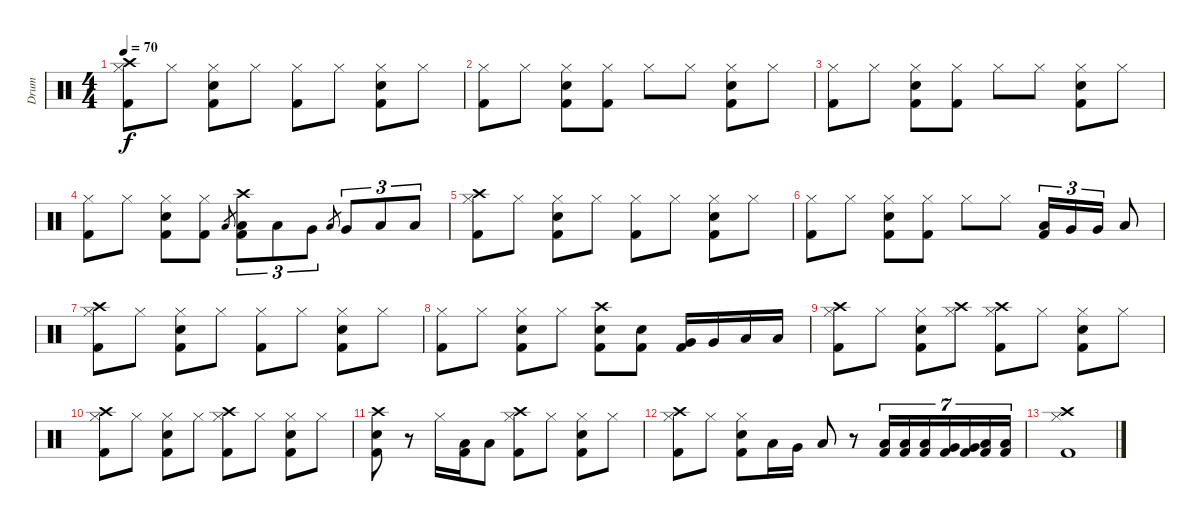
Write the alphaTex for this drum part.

\track ("Drum" "Drum") {instrument percussion}
\staff {score}
\articulation defaults
\ts (4 4)
\tempo 70
\clef neutral
\ks c
("Crash high (hit)" "Hi-Hat (closed)" "Kick (hit) 2").8{dy f} "Hi-Hat (closed)".8 ("Hi-Hat (closed)" "Electric Snare (hit)" "Kick (hit) 2").8 "Hi-Hat (closed)".8 ("Hi-Hat (closed)" "Kick (hit) 2").8 "Hi-Hat (closed)".8 ("Hi-Hat (closed)" "Electric Snare (hit)" "Kick (hit) 2").8 "Hi-Hat (closed)".8 |
("Hi-Hat (closed)" "Kick (hit) 2").8 "Hi-Hat (closed)".8 ("Hi-Hat (closed)" "Electric Snare (hit)" "Kick (hit) 2").8 ("Hi-Hat (closed)" "Kick (hit) 2").8 "Hi-Hat (closed)".8 "Hi-Hat (closed)".8 ("Hi-Hat (closed)" "Electric Snare (hit)" "Kick (hit) 2").8 "Hi-Hat (closed)".8 |
("Hi-Hat (closed)" "Kick (hit) 2").8 "Hi-Hat (closed)".8 ("Hi-Hat (closed)" "Electric Snare (hit)" "Kick (hit) 2").8 ("Hi-Hat (closed)" "Kick (hit) 2").8 "Hi-Hat (closed)".8 "Hi-Hat (closed)".8 ("Hi-Hat (closed)" "Electric Snare (hit)" "Kick (hit) 2").8 "Hi-Hat (closed)".8 |
("Hi-Hat (closed)" "Kick (hit) 2").8 "Hi-Hat (closed)".8 ("Hi-Hat (closed)" "Electric Snare (hit)" "Kick (hit) 2").8 ("Hi-Hat (closed)" "Kick (hit) 2").8 "Low Floor Tom (hit)".8{gr} ("Crash high (hit)" "Low Tom (hit)" "Kick (hit) 2").8{tu (3 2)} "Low Tom (hit)".8{tu (3 2)} "Very Low Tom (hit)".8{tu (3 2)} "Low Floor Tom (hit)".8{gr} "Very Low Tom (hit)".8{tu (3 2)} "Low Floor Tom (hit)".8{tu (3 2)} "Low Floor Tom (hit)".8{tu (3 2)} |
("Crash high (hit)" "Hi-Hat (closed)" "Kick (hit) 2").8 "Hi-Hat (closed)".8 ("Hi-Hat (closed)" "Electric Snare (hit)" "Kick (hit) 2").8 "Hi-Hat (closed)".8 ("Hi-Hat (closed)" "Kick (hit) 2").8 "Hi-Hat (closed)".8 ("Hi-Hat (closed)" "Electric Snare (hit)" "Kick (hit) 2").8 "Hi-Hat (closed)".8 |
("Hi-Hat (closed)" "Kick (hit) 2").8 "Hi-Hat (closed)".8 ("Hi-Hat (closed)" "Electric Snare (hit)" "Kick (hit) 2").8 ("Hi-Hat (closed)" "Kick (hit) 2").8 "Hi-Hat (closed)".8 "Hi-Hat (closed)".8 ("Low Tom (hit)" "Kick (hit) 2").16{tu (3 2)} "Very Low Tom (hit)".16{tu (3 2)} "Very Low Tom (hit)".16{tu (3 2)} "Low Floor Tom (hit)".8 |
("Crash high (hit)" "Hi-Hat (closed)" "Kick (hit) 2").8 "Hi-Hat (closed)".8 ("Hi-Hat (closed)" "Electric Snare (hit)" "Kick (hit) 2").8 "Hi-Hat (closed)".8 ("Hi-Hat (closed)" "Kick (hit) 2").8 "Hi-Hat (closed)".8 ("Hi-Hat (closed)" "Electric Snare (hit)" "Kick (hit) 2").8 "Hi-Hat (closed)".8 |
("Hi-Hat (closed)" "Kick (hit) 2").8 "Hi-Hat (closed)".8 ("Hi-Hat (closed)" "Electric Snare (hit)" "Kick (hit) 2").8 "Hi-Hat (closed)".8 ("Crash high (hit)" "Electric Snare (hit)" "Kick (hit) 2").8 ("Electric Snare (hit)" "Kick (hit) 2").8 ("Very Low Tom (hit)" "Kick (hit) 2").16 "Very Low Tom (hit)".16 "Low Floor Tom (hit)".16 "Low Floor Tom (hit)".16 |
("Crash high (hit)" "Hi-Hat (closed)" "Kick (hit) 2").8 "Hi-Hat (closed)".8 ("Hi-Hat (closed)" "Electric Snare (hit)" "Kick (hit) 2").8 ("Crash high (hit)" "Hi-Hat (closed)").8 ("Crash high (hit)" "Hi-Hat (closed)" "Kick (hit) 2").8 "Hi-Hat (closed)".8 ("Hi-Hat (closed)" "Electric Snare (hit)" "Kick (hit) 2").8 "Hi-Hat (closed)".8 |
("Crash high (hit)" "Hi-Hat (closed)" "Kick (hit) 2").8 "Hi-Hat (closed)".8 ("Hi-Hat (closed)" "Electric Snare (hit)" "Kick (hit) 2").8 "Hi-Hat (closed)".8 ("Crash high (hit)" "Hi-Hat (closed)" "Kick (hit) 2").8 "Hi-Hat (closed)".8 ("Hi-Hat (closed)" "Electric Snare (hit)" "Kick (hit) 2").8 "Hi-Hat (closed)".8 |
("Crash high (hit)" "Electric Snare (hit)" "Kick (hit) 2").8 r.8 "Hi-Hat (closed)".16 ("Low Tom (hit)" "Kick (hit) 2").16 "Low Tom (hit)".8 ("Crash high (hit)" "Hi-Hat (closed)" "Kick (hit) 2").8 "Hi-Hat (closed)".8 ("Hi-Hat (closed)" "Electric Snare (hit)" "Kick (hit) 2").8 "Hi-Hat (closed)".8 |
("Crash high (hit)" "Hi-Hat (closed)" "Kick (hit) 2").8 "Hi-Hat (closed)".8 ("Hi-Hat (closed)" "Electric Snare (hit)" "Kick (hit) 2").8 "Low Tom (hit)".16 "Very Low Tom (hit)".16 "Low Floor Tom (hit)".8 r.8 ("Low Tom (hit)" "Kick (hit) 2").16{tu (7 4)} ("Low Tom (hit)" "Kick (hit) 2").16{tu (7 4)} ("Low Tom (hit)" "Kick (hit) 2").16{tu (7 4)} ("Very Low Tom (hit)" "Kick (hit) 2").16{tu (7 4)} ("Very Low Tom (hit)" "Kick (hit) 2").16{tu (7 4)} ("Low Floor Tom (hit)" "Kick (hit) 2").16{tu (7 4)} ("Low Floor Tom (hit)" "Kick (hit) 2").16{tu (7 4)} |
("Crash high (hit)" "Hi-Hat (closed)" "Kick (hit) 2").1
